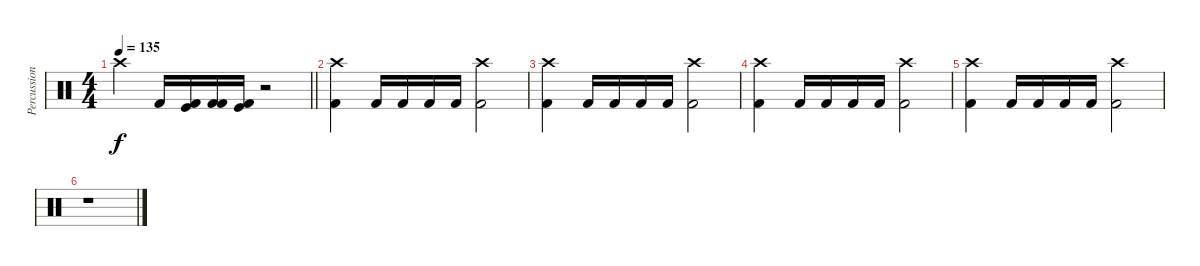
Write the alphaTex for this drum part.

\track ("Percussion" "Percussion") {instrument percussion}
\staff {score}
\articulation defaults
\ts (4 4)
\tempo 135
\clef neutral
\barLineRight lightlight
\ks c "Crash high (hit)".4{dy f} "Kick (hit) 2".16
("Kick (hit)" "Kick (hit) 2").16 ("Kick (hit) 2" "Kick (hit) 2").16 ("Kick (hit)" "Kick (hit) 2").16 r.2 |
("Crash high (hit)" "Kick (hit) 2").4 "Kick (hit) 2".16 "Kick (hit) 2".16 "Kick (hit) 2".16 "Kick (hit) 2".16 ("Crash high (hit)" "Kick (hit) 2").2 |
("Crash high (hit)" "Kick (hit) 2").4 "Kick (hit) 2".16 "Kick (hit) 2".16 "Kick (hit) 2".16 "Kick (hit) 2".16 ("Crash high (hit)" "Kick (hit) 2").2 |
("Crash high (hit)" "Kick (hit) 2").4 "Kick (hit) 2".16 "Kick (hit) 2".16 "Kick (hit) 2".16 "Kick (hit) 2".16 ("Crash high (hit)" "Kick (hit) 2").2 |
("Crash high (hit)" "Kick (hit) 2").4 "Kick (hit) 2".16 "Kick (hit) 2".16 "Kick (hit) 2".16 "Kick (hit) 2".16 ("Crash high (hit)" "Kick (hit) 2").2 |
r.1
